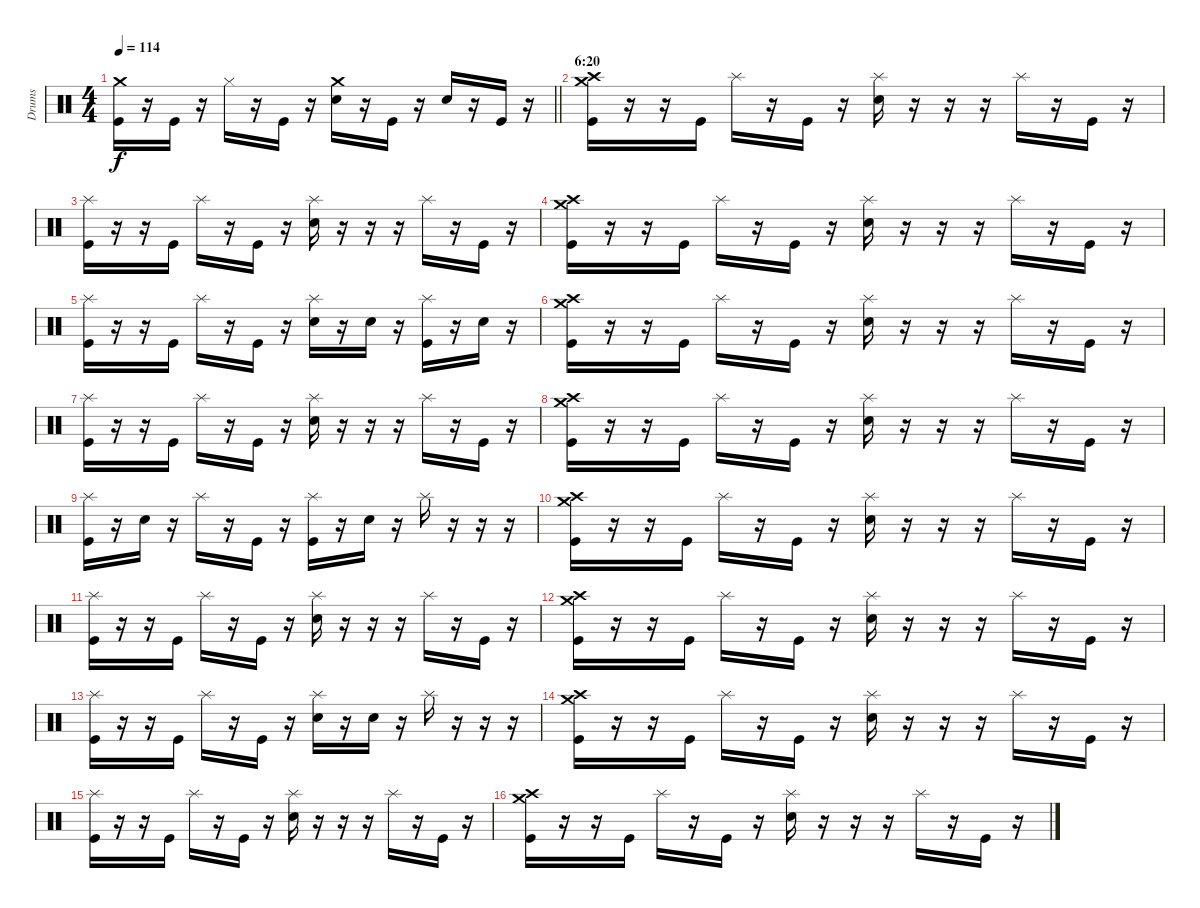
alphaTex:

\track ("Drums" "Drums") {instrument percussion}
\staff {score}
\articulation defaults
\ts (4 4)
\tempo 114
\clef neutral
\barLineRight lightlight
\ks c
("Crash medium (hit)" "Kick (hit)").16{dy f} r.16 "Kick (hit)".16 r.16 "Hi-Hat (closed)".16 r.16 "Kick (hit)".16 r.16 ("Crash medium (hit)" "Snare (hit) 2").16 r.16 "Kick (hit)".16 r.16 "Snare (hit) 2".16 r.16 "Kick (hit)".16 r.16 |
\section ("" "6:20")
("Crash medium (hit)" "Crash high (hit)" "Kick (hit)").16 r.16 r.16 "Kick (hit)".16 "Splash (hit)".16 r.16 "Kick (hit)".16 r.16 ("Splash (hit)" "Snare (hit) 2").16 r.16 r.16 r.16 "Splash (hit)".16 r.16 "Kick (hit)".16 r.16 |
("Splash (hit)" "Kick (hit)").16 r.16 r.16 "Kick (hit)".16 "Splash (hit)".16 r.16 "Kick (hit)".16 r.16 ("Splash (hit)" "Snare (hit) 2").16 r.16 r.16 r.16 "Splash (hit)".16 r.16 "Kick (hit)".16 r.16 |
("Crash medium (hit)" "Crash high (hit)" "Kick (hit)").16 r.16 r.16 "Kick (hit)".16 "Splash (hit)".16 r.16 "Kick (hit)".16 r.16 ("Splash (hit)" "Snare (hit) 2").16 r.16 r.16 r.16 "Splash (hit)".16 r.16 "Kick (hit)".16 r.16 |
("Splash (hit)" "Kick (hit)").16 r.16 r.16 "Kick (hit)".16 "Splash (hit)".16 r.16 "Kick (hit)".16 r.16 ("Splash (hit)" "Snare (hit) 2").16 r.16 "Snare (hit) 2".16 r.16 ("Splash (hit)" "Kick (hit)").16 r.16 "Snare (hit) 2".16 r.16 |
("Crash medium (hit)" "Crash high (hit)" "Kick (hit)").16 r.16 r.16 "Kick (hit)".16 "Splash (hit)".16 r.16 "Kick (hit)".16 r.16 ("Splash (hit)" "Snare (hit) 2").16 r.16 r.16 r.16 "Splash (hit)".16 r.16 "Kick (hit)".16 r.16 |
("Splash (hit)" "Kick (hit)").16 r.16 r.16 "Kick (hit)".16 "Splash (hit)".16 r.16 "Kick (hit)".16 r.16 ("Splash (hit)" "Snare (hit) 2").16 r.16 r.16 r.16 "Splash (hit)".16 r.16 "Kick (hit)".16 r.16 |
("Crash medium (hit)" "Crash high (hit)" "Kick (hit)").16 r.16 r.16 "Kick (hit)".16 "Splash (hit)".16 r.16 "Kick (hit)".16 r.16 ("Splash (hit)" "Snare (hit) 2").16 r.16 r.16 r.16 "Splash (hit)".16 r.16 "Kick (hit)".16 r.16 |
("Splash (hit)" "Kick (hit)").16 r.16 "Snare (hit) 2".16 r.16 "Splash (hit)".16 r.16 "Kick (hit)".16 r.16 ("Splash (hit)" "Kick (hit)").16 r.16 "Snare (hit) 2".16 r.16 "Splash (hit)".16 r.16 r.16 r.16 |
("Crash medium (hit)" "Crash high (hit)" "Kick (hit)").16 r.16 r.16 "Kick (hit)".16 "Splash (hit)".16 r.16 "Kick (hit)".16 r.16 ("Splash (hit)" "Snare (hit) 2").16 r.16 r.16 r.16 "Splash (hit)".16 r.16 "Kick (hit)".16 r.16 |
("Splash (hit)" "Kick (hit)").16 r.16 r.16 "Kick (hit)".16 "Splash (hit)".16 r.16 "Kick (hit)".16 r.16 ("Splash (hit)" "Snare (hit) 2").16 r.16 r.16 r.16 "Splash (hit)".16 r.16 "Kick (hit)".16 r.16 |
("Crash medium (hit)" "Crash high (hit)" "Kick (hit)").16 r.16 r.16 "Kick (hit)".16 "Splash (hit)".16 r.16 "Kick (hit)".16 r.16 ("Splash (hit)" "Snare (hit) 2").16 r.16 r.16 r.16 "Splash (hit)".16 r.16 "Kick (hit)".16 r.16 |
("Splash (hit)" "Kick (hit)").16 r.16 r.16 "Kick (hit)".16 "Splash (hit)".16 r.16 "Kick (hit)".16 r.16 ("Splash (hit)" "Snare (hit) 2").16 r.16 "Snare (hit) 2".16 r.16 "Splash (hit)".16 r.16 r.16 r.16 |
("Crash medium (hit)" "Crash high (hit)" "Kick (hit)").16 r.16 r.16 "Kick (hit)".16 "Splash (hit)".16 r.16 "Kick (hit)".16 r.16 ("Splash (hit)" "Snare (hit) 2").16 r.16 r.16 r.16 "Splash (hit)".16 r.16 "Kick (hit)".16 r.16 |
("Splash (hit)" "Kick (hit)").16 r.16 r.16 "Kick (hit)".16 "Splash (hit)".16 r.16 "Kick (hit)".16 r.16 ("Splash (hit)" "Snare (hit) 2").16 r.16 r.16 r.16 "Splash (hit)".16 r.16 "Kick (hit)".16 r.16 |
("Crash medium (hit)" "Crash high (hit)" "Kick (hit)").16 r.16 r.16 "Kick (hit)".16 "Splash (hit)".16 r.16 "Kick (hit)".16 r.16 ("Splash (hit)" "Snare (hit) 2").16 r.16 r.16 r.16 "Splash (hit)".16 r.16 "Kick (hit)".16 r.16
